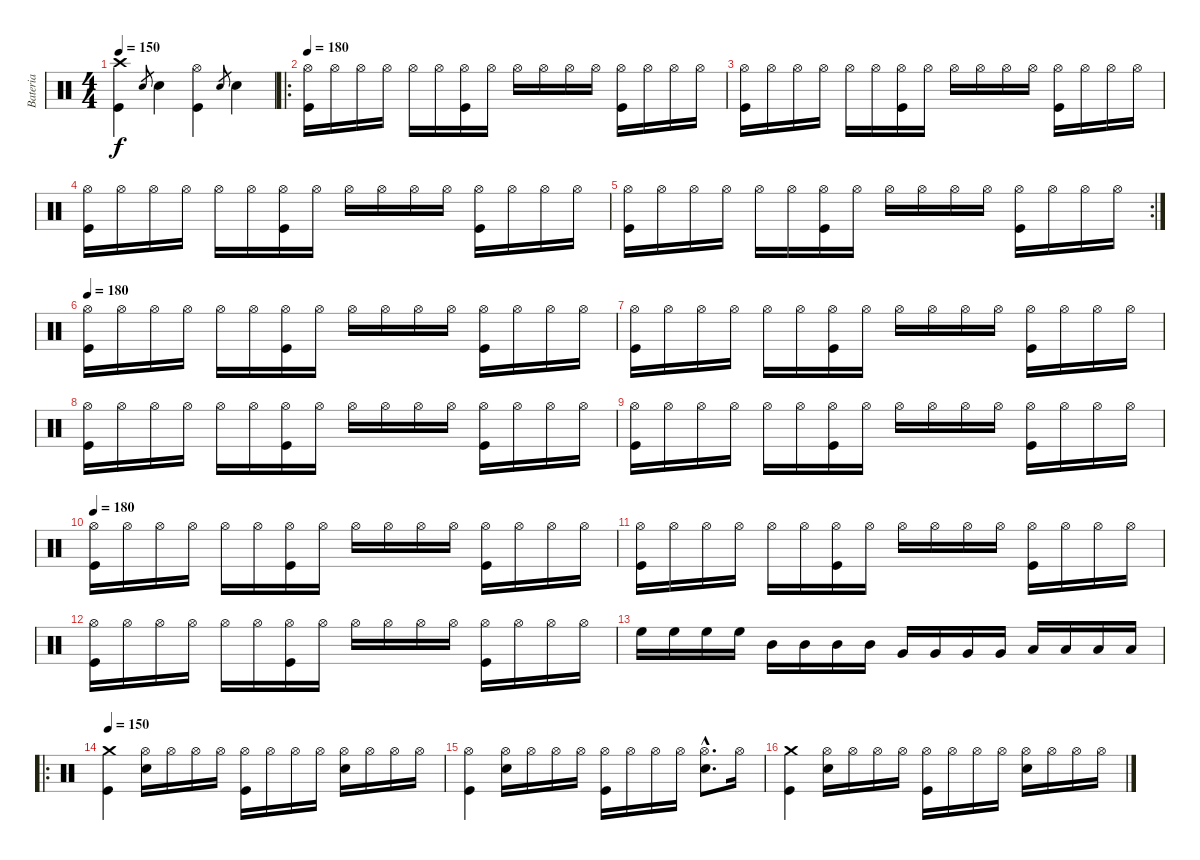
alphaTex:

\track ("Bateria" "Bateria") {instrument percussion}
\staff {score}
\articulation defaults
\ts (4 4)
\tempo 150
\clef neutral
\ks c
("Crash high (hit)" "Kick (hit)").4{dy f} "Snare (hit) 2".8{gr} "Snare (hit) 2".4 ("Hi-Hat (open)" "Kick (hit)").4 "Snare (hit) 2".8{gr} "Snare (hit) 2".4 |
\ro
\tempo 180
("Hi-Hat (open)" "Kick (hit)").16 "Hi-Hat (open)".16 "Hi-Hat (open)".16 "Hi-Hat (open)".16 "Hi-Hat (open)".16 "Hi-Hat (open)".16 ("Hi-Hat (open)" "Kick (hit)").16 "Hi-Hat (open)".16 "Hi-Hat (open)".16 "Hi-Hat (open)".16 "Hi-Hat (open)".16 "Hi-Hat (open)".16 ("Hi-Hat (open)" "Kick (hit)").16 "Hi-Hat (open)".16 "Hi-Hat (open)".16 "Hi-Hat (open)".16 |
("Hi-Hat (open)" "Kick (hit)").16 "Hi-Hat (open)".16 "Hi-Hat (open)".16 "Hi-Hat (open)".16 "Hi-Hat (open)".16 "Hi-Hat (open)".16 ("Hi-Hat (open)" "Kick (hit)").16 "Hi-Hat (open)".16 "Hi-Hat (open)".16 "Hi-Hat (open)".16 "Hi-Hat (open)".16 "Hi-Hat (open)".16 ("Hi-Hat (open)" "Kick (hit)").16 "Hi-Hat (open)".16 "Hi-Hat (open)".16 "Hi-Hat (open)".16 |
("Hi-Hat (open)" "Kick (hit)").16 "Hi-Hat (open)".16 "Hi-Hat (open)".16 "Hi-Hat (open)".16 "Hi-Hat (open)".16 "Hi-Hat (open)".16 ("Hi-Hat (open)" "Kick (hit)").16 "Hi-Hat (open)".16 "Hi-Hat (open)".16 "Hi-Hat (open)".16 "Hi-Hat (open)".16 "Hi-Hat (open)".16 ("Hi-Hat (open)" "Kick (hit)").16 "Hi-Hat (open)".16 "Hi-Hat (open)".16 "Hi-Hat (open)".16 |
\rc 2
("Hi-Hat (open)" "Kick (hit)").16 "Hi-Hat (open)".16 "Hi-Hat (open)".16 "Hi-Hat (open)".16 "Hi-Hat (open)".16 "Hi-Hat (open)".16 ("Hi-Hat (open)" "Kick (hit)").16 "Hi-Hat (open)".16 "Hi-Hat (open)".16 "Hi-Hat (open)".16 "Hi-Hat (open)".16 "Hi-Hat (open)".16 ("Hi-Hat (open)" "Kick (hit)").16 "Hi-Hat (open)".16 "Hi-Hat (open)".16 "Hi-Hat (open)".16 |
\tempo 180
("Hi-Hat (open)" "Kick (hit)").16 "Hi-Hat (open)".16 "Hi-Hat (open)".16 "Hi-Hat (open)".16 "Hi-Hat (open)".16 "Hi-Hat (open)".16 ("Hi-Hat (open)" "Kick (hit)").16 "Hi-Hat (open)".16 "Hi-Hat (open)".16 "Hi-Hat (open)".16 "Hi-Hat (open)".16 "Hi-Hat (open)".16 ("Hi-Hat (open)" "Kick (hit)").16 "Hi-Hat (open)".16 "Hi-Hat (open)".16 "Hi-Hat (open)".16 |
("Hi-Hat (open)" "Kick (hit)").16 "Hi-Hat (open)".16 "Hi-Hat (open)".16 "Hi-Hat (open)".16 "Hi-Hat (open)".16 "Hi-Hat (open)".16 ("Hi-Hat (open)" "Kick (hit)").16 "Hi-Hat (open)".16 "Hi-Hat (open)".16 "Hi-Hat (open)".16 "Hi-Hat (open)".16 "Hi-Hat (open)".16 ("Hi-Hat (open)" "Kick (hit)").16 "Hi-Hat (open)".16 "Hi-Hat (open)".16 "Hi-Hat (open)".16 |
("Hi-Hat (open)" "Kick (hit)").16 "Hi-Hat (open)".16 "Hi-Hat (open)".16 "Hi-Hat (open)".16 "Hi-Hat (open)".16 "Hi-Hat (open)".16 ("Hi-Hat (open)" "Kick (hit)").16 "Hi-Hat (open)".16 "Hi-Hat (open)".16 "Hi-Hat (open)".16 "Hi-Hat (open)".16 "Hi-Hat (open)".16 ("Hi-Hat (open)" "Kick (hit)").16 "Hi-Hat (open)".16 "Hi-Hat (open)".16 "Hi-Hat (open)".16 |
("Hi-Hat (open)" "Kick (hit)").16 "Hi-Hat (open)".16 "Hi-Hat (open)".16 "Hi-Hat (open)".16 "Hi-Hat (open)".16 "Hi-Hat (open)".16 ("Hi-Hat (open)" "Kick (hit)").16 "Hi-Hat (open)".16 "Hi-Hat (open)".16 "Hi-Hat (open)".16 "Hi-Hat (open)".16 "Hi-Hat (open)".16 ("Hi-Hat (open)" "Kick (hit)").16 "Hi-Hat (open)".16 "Hi-Hat (open)".16 "Hi-Hat (open)".16 |
\tempo 180
("Hi-Hat (open)" "Kick (hit)").16 "Hi-Hat (open)".16 "Hi-Hat (open)".16 "Hi-Hat (open)".16 "Hi-Hat (open)".16 "Hi-Hat (open)".16 ("Hi-Hat (open)" "Kick (hit)").16 "Hi-Hat (open)".16 "Hi-Hat (open)".16 "Hi-Hat (open)".16 "Hi-Hat (open)".16 "Hi-Hat (open)".16 ("Hi-Hat (open)" "Kick (hit)").16 "Hi-Hat (open)".16 "Hi-Hat (open)".16 "Hi-Hat (open)".16 |
("Hi-Hat (open)" "Kick (hit)").16 "Hi-Hat (open)".16 "Hi-Hat (open)".16 "Hi-Hat (open)".16 "Hi-Hat (open)".16 "Hi-Hat (open)".16 ("Hi-Hat (open)" "Kick (hit)").16 "Hi-Hat (open)".16 "Hi-Hat (open)".16 "Hi-Hat (open)".16 "Hi-Hat (open)".16 "Hi-Hat (open)".16 ("Hi-Hat (open)" "Kick (hit)").16 "Hi-Hat (open)".16 "Hi-Hat (open)".16 "Hi-Hat (open)".16 |
("Hi-Hat (open)" "Kick (hit)").16 "Hi-Hat (open)".16 "Hi-Hat (open)".16 "Hi-Hat (open)".16 "Hi-Hat (open)".16 "Hi-Hat (open)".16 ("Hi-Hat (open)" "Kick (hit)").16 "Hi-Hat (open)".16 "Hi-Hat (open)".16 "Hi-Hat (open)".16 "Hi-Hat (open)".16 "Hi-Hat (open)".16 ("Hi-Hat (open)" "Kick (hit)").16 "Hi-Hat (open)".16 "Hi-Hat (open)".16 "Hi-Hat (open)".16 |
"High Floor Tom (hit)".16 "High Floor Tom (hit)".16 "High Floor Tom (hit)".16 "High Floor Tom (hit)".16 "Mid Tom (hit)".16 "Mid Tom (hit)".16 "Mid Tom (hit)".16 "Mid Tom (hit)".16 "Very Low Tom (hit)".16 "Very Low Tom (hit)".16 "Very Low Tom (hit)".16 "Very Low Tom (hit)".16 "Low Floor Tom (hit)".16 "Low Floor Tom (hit)".16 "Low Floor Tom (hit)".16 "Low Floor Tom (hit)".16 |
\ro
\tempo 150
("Crash medium (hit)" "Kick (hit)").4 ("Hi-Hat (open)" "Snare (hit) 2").16 "Hi-Hat (open)".16 "Hi-Hat (open)".16 "Hi-Hat (open)".16 ("Hi-Hat (open)" "Kick (hit)").16 "Hi-Hat (open)".16 "Hi-Hat (open)".16 "Hi-Hat (open)".16 ("Hi-Hat (open)" "Snare (hit) 2").16 "Hi-Hat (open)".16 "Hi-Hat (open)".16 "Hi-Hat (open)".16 |
("Hi-Hat (open)" "Kick (hit)").4 ("Hi-Hat (open)" "Snare (hit) 2").16 "Hi-Hat (open)".16 "Hi-Hat (open)".16 "Hi-Hat (open)".16 ("Hi-Hat (open)" "Kick (hit)").16 "Hi-Hat (open)".16 "Hi-Hat (open)".16 "Hi-Hat (open)".16 ("Hi-Hat (open)"{hac} "Snare (hit) 2"{hac}).8{d} "Hi-Hat (open)".16 |
("Crash medium (hit)" "Kick (hit)").4 ("Hi-Hat (open)" "Snare (hit) 2").16 "Hi-Hat (open)".16 "Hi-Hat (open)".16 "Hi-Hat (open)".16 ("Hi-Hat (open)" "Kick (hit)").16 "Hi-Hat (open)".16 "Hi-Hat (open)".16 "Hi-Hat (open)".16 ("Hi-Hat (open)" "Snare (hit) 2").16 "Hi-Hat (open)".16 "Hi-Hat (open)".16 "Hi-Hat (open)".16
